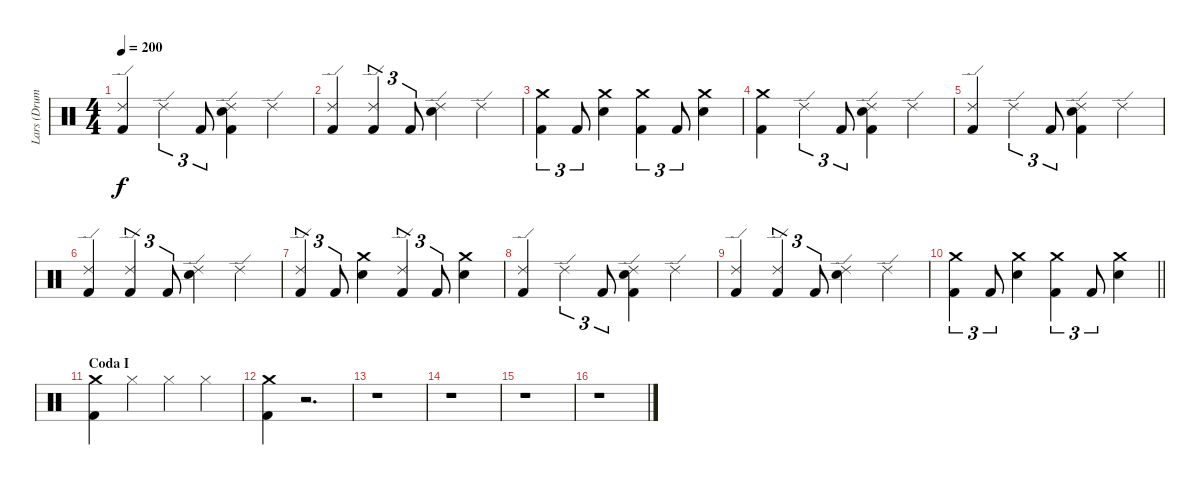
\track ("Lars (Drums)" "Lars (Drum") {instrument percussion}
\staff {score}
\articulation defaults
\ts (4 4)
\tempo 200
\clef neutral
\ks c
("Ride (edge) 2" "Kick (hit) 2").4{dy f} "Ride (edge) 2".4{tu (3 2)} "Kick (hit) 2".8{tu (3 2)} ("Ride (edge) 2" "Snare (hit) 2" "Kick (hit) 2").4 "Ride (edge) 2".4 |
("Kick (hit) 2" "Ride (edge) 2").4 ("Ride (edge) 2" "Kick (hit) 2").4{tu (3 2)} "Kick (hit) 2".8{tu (3 2)} ("Snare (hit) 2" "Ride (edge) 2").4 "Ride (edge) 2".4 |
("Kick (hit) 2" "Crash medium (hit)").4{tu (3 2)} "Kick (hit) 2".8{tu (3 2)} ("Snare (hit) 2" "Crash medium (hit)").4 ("Kick (hit) 2" "Crash medium (hit)").4{tu (3 2)} "Kick (hit) 2".8{tu (3 2)} ("Snare (hit) 2" "Crash medium (hit)").4 |
("Kick (hit) 2" "Crash medium (hit)").4 "Ride (edge) 2".4{tu (3 2)} "Kick (hit) 2".8{tu (3 2)} ("Kick (hit) 2" "Snare (hit) 2" "Ride (edge) 2").4 "Ride (edge) 2".4 |
("Kick (hit) 2" "Ride (edge) 2").4 "Ride (edge) 2".4{tu (3 2)} "Kick (hit) 2".8{tu (3 2)} ("Kick (hit) 2" "Snare (hit) 2" "Ride (edge) 2").4 "Ride (edge) 2".4 |
("Kick (hit) 2" "Ride (edge) 2").4 ("Kick (hit) 2" "Ride (edge) 2").4{tu (3 2)} "Kick (hit) 2".8{tu (3 2)} ("Ride (edge) 2" "Snare (hit) 2").4 "Ride (edge) 2".4 |
("Ride (edge) 2" "Kick (hit) 2").4{tu (3 2)} "Kick (hit) 2".8{tu (3 2)} ("Snare (hit) 2" "Crash medium (hit)").4 ("Ride (edge) 2" "Kick (hit) 2").4{tu (3 2)} "Kick (hit) 2".8{tu (3 2)} ("Snare (hit) 2" "Crash medium (hit)").4 |
("Ride (edge) 2" "Kick (hit) 2").4 "Ride (edge) 2".4{tu (3 2)} "Kick (hit) 2".8{tu (3 2)} ("Ride (edge) 2" "Snare (hit) 2" "Kick (hit) 2").4 "Ride (edge) 2".4 |
("Kick (hit) 2" "Ride (edge) 2").4 ("Ride (edge) 2" "Kick (hit) 2").4{tu (3 2)} "Kick (hit) 2".8{tu (3 2)} ("Snare (hit) 2" "Ride (edge) 2").4 "Ride (edge) 2".4 |
\barLineRight lightlight
("Kick (hit) 2" "Crash medium (hit)").4{tu (3 2)} "Kick (hit) 2".8{tu (3 2)} ("Snare (hit) 2" "Crash medium (hit)").4 ("Kick (hit) 2" "Crash medium (hit)").4{tu (3 2)} "Kick (hit) 2".8{tu (3 2)} ("Snare (hit) 2" "Crash medium (hit)").4 |
\section ("" "Coda I")
("Kick (hit) 2" "Crash medium (hit)").4 "Hi-Hat (closed)".4 "Hi-Hat (closed)".4 "Hi-Hat (closed)".4 |
("Kick (hit) 2" "Crash medium (hit)").4 r.2{d} |
r.1 |
r.1 |
r.1 |
r.1
